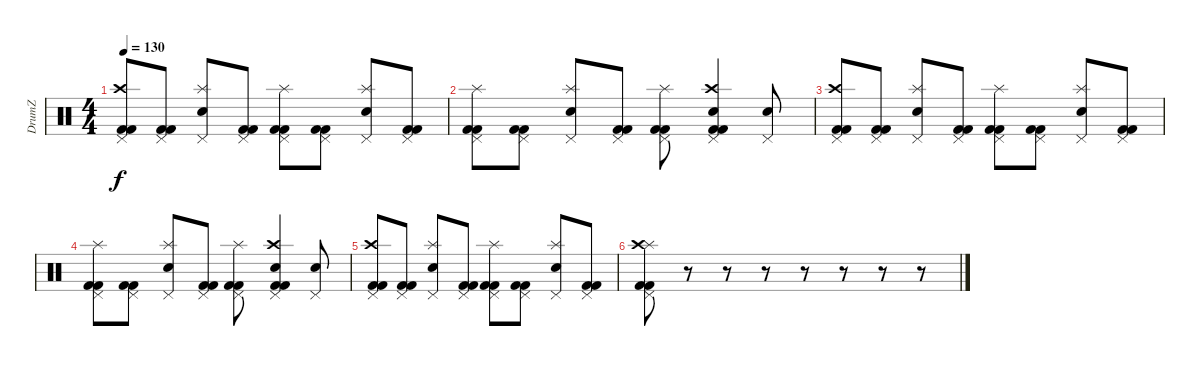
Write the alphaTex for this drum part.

\track ("DrumZ" "DrumZ") {instrument percussion}
\staff {score}
\articulation defaults
\ts (4 4)
\tempo 130
\clef neutral
\ks c
("Pedal Hi-Hat (hit)" "Crash high (hit)" "Kick (hit) 2" "Kick (hit) 2").8{dy f} ("Pedal Hi-Hat (hit)" "Kick (hit) 2" "Kick (hit) 2").8 ("Pedal Hi-Hat (hit)" "Splash (hit)" "Snare (hit) 2").8 ("Pedal Hi-Hat (hit)" "Kick (hit) 2" "Kick (hit) 2").8 ("Pedal Hi-Hat (hit)" "Splash (hit)" "Kick (hit) 2" "Kick (hit) 2").8 ("Pedal Hi-Hat (hit)" "Kick (hit) 2" "Kick (hit) 2").8 ("Pedal Hi-Hat (hit)" "Splash (hit)" "Snare (hit) 2").8 ("Pedal Hi-Hat (hit)" "Kick (hit) 2" "Kick (hit) 2").8 |
("Pedal Hi-Hat (hit)" "Splash (hit)" "Kick (hit) 2" "Kick (hit) 2").8 ("Pedal Hi-Hat (hit)" "Kick (hit) 2" "Kick (hit) 2").8 ("Pedal Hi-Hat (hit)" "Splash (hit)" "Snare (hit) 2").8 ("Pedal Hi-Hat (hit)" "Kick (hit) 2" "Kick (hit) 2").8 ("Pedal Hi-Hat (hit)" "Splash (hit)" "Kick (hit) 2" "Kick (hit) 2").8 ("Pedal Hi-Hat (hit)" "Crash high (hit)" "Snare (hit) 2" "Kick (hit) 2" "Kick (hit) 2").4 ("Pedal Hi-Hat (hit)" "Snare (hit) 2").8 |
("Pedal Hi-Hat (hit)" "Crash high (hit)" "Kick (hit) 2" "Kick (hit) 2").8 ("Pedal Hi-Hat (hit)" "Kick (hit) 2" "Kick (hit) 2").8 ("Pedal Hi-Hat (hit)" "Splash (hit)" "Snare (hit) 2").8 ("Pedal Hi-Hat (hit)" "Kick (hit) 2" "Kick (hit) 2").8 ("Pedal Hi-Hat (hit)" "Splash (hit)" "Kick (hit) 2" "Kick (hit) 2").8 ("Pedal Hi-Hat (hit)" "Kick (hit) 2" "Kick (hit) 2").8 ("Pedal Hi-Hat (hit)" "Splash (hit)" "Snare (hit) 2").8 ("Pedal Hi-Hat (hit)" "Kick (hit) 2" "Kick (hit) 2").8 |
("Pedal Hi-Hat (hit)" "Splash (hit)" "Kick (hit) 2" "Kick (hit) 2").8 ("Pedal Hi-Hat (hit)" "Kick (hit) 2" "Kick (hit) 2").8 ("Pedal Hi-Hat (hit)" "Splash (hit)" "Snare (hit) 2").8 ("Pedal Hi-Hat (hit)" "Kick (hit) 2" "Kick (hit) 2").8 ("Pedal Hi-Hat (hit)" "Splash (hit)" "Kick (hit) 2" "Kick (hit) 2").8 ("Pedal Hi-Hat (hit)" "Crash high (hit)" "Snare (hit) 2" "Kick (hit) 2" "Kick (hit) 2").4 ("Pedal Hi-Hat (hit)" "Snare (hit) 2").8 |
("Pedal Hi-Hat (hit)" "Crash high (hit)" "Kick (hit) 2" "Kick (hit) 2").8 ("Pedal Hi-Hat (hit)" "Kick (hit) 2" "Kick (hit) 2").8 ("Pedal Hi-Hat (hit)" "Splash (hit)" "Snare (hit) 2").8 ("Pedal Hi-Hat (hit)" "Kick (hit) 2" "Kick (hit) 2").8 ("Pedal Hi-Hat (hit)" "Splash (hit)" "Kick (hit) 2" "Kick (hit) 2").8 ("Pedal Hi-Hat (hit)" "Kick (hit) 2" "Kick (hit) 2").8 ("Pedal Hi-Hat (hit)" "Splash (hit)" "Snare (hit) 2").8 ("Pedal Hi-Hat (hit)" "Kick (hit) 2" "Kick (hit) 2").8 |
("Pedal Hi-Hat (hit)" "Splash (hit)" "Crash high (hit)" "Kick (hit) 2" "Kick (hit) 2").8 r.8 r.8 r.8 r.8 r.8 r.8 r.8
